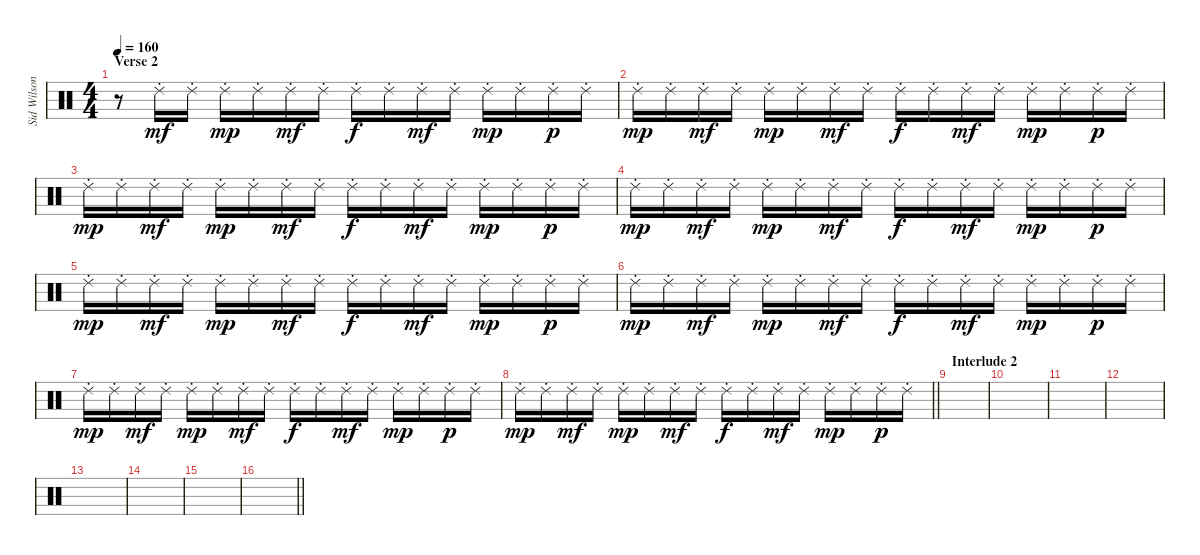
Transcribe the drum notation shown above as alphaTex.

\track ("Sid Wilson" "Sid Wilson") {instrument percussion}
\staff {score}
\articulation defaults
\ts (4 4)
\section ("" "Verse 2")
\tempo 160
\clef neutral
\ks c
r.8{dy p} "Ride (choke) 2".16{dy mf} "Ride (choke) 2".16 "Ride (choke) 2".16{dy mp} "Ride (choke) 2".16 "Ride (choke) 2".16{dy mf} "Ride (choke) 2".16 "Ride (choke) 2".16{dy f} "Ride (choke) 2".16 "Ride (choke) 2".16{dy mf} "Ride (choke) 2".16 "Ride (choke) 2".16{dy mp} "Ride (choke) 2".16 "Ride (choke) 2".16{dy p} "Ride (choke) 2".16 |
"Ride (choke) 2".16{dy mp} "Ride (choke) 2".16 "Ride (choke) 2".16{dy mf} "Ride (choke) 2".16 "Ride (choke) 2".16{dy mp} "Ride (choke) 2".16 "Ride (choke) 2".16{dy mf} "Ride (choke) 2".16 "Ride (choke) 2".16{dy f} "Ride (choke) 2".16 "Ride (choke) 2".16{dy mf} "Ride (choke) 2".16 "Ride (choke) 2".16{dy mp} "Ride (choke) 2".16 "Ride (choke) 2".16{dy p} "Ride (choke) 2".16 |
"Ride (choke) 2".16{dy mp} "Ride (choke) 2".16 "Ride (choke) 2".16{dy mf} "Ride (choke) 2".16 "Ride (choke) 2".16{dy mp} "Ride (choke) 2".16 "Ride (choke) 2".16{dy mf} "Ride (choke) 2".16 "Ride (choke) 2".16{dy f} "Ride (choke) 2".16 "Ride (choke) 2".16{dy mf} "Ride (choke) 2".16 "Ride (choke) 2".16{dy mp} "Ride (choke) 2".16 "Ride (choke) 2".16{dy p} "Ride (choke) 2".16 |
"Ride (choke) 2".16{dy mp} "Ride (choke) 2".16 "Ride (choke) 2".16{dy mf} "Ride (choke) 2".16 "Ride (choke) 2".16{dy mp} "Ride (choke) 2".16 "Ride (choke) 2".16{dy mf} "Ride (choke) 2".16 "Ride (choke) 2".16{dy f} "Ride (choke) 2".16 "Ride (choke) 2".16{dy mf} "Ride (choke) 2".16 "Ride (choke) 2".16{dy mp} "Ride (choke) 2".16 "Ride (choke) 2".16{dy p} "Ride (choke) 2".16 |
"Ride (choke) 2".16{dy mp} "Ride (choke) 2".16 "Ride (choke) 2".16{dy mf} "Ride (choke) 2".16 "Ride (choke) 2".16{dy mp} "Ride (choke) 2".16 "Ride (choke) 2".16{dy mf} "Ride (choke) 2".16 "Ride (choke) 2".16{dy f} "Ride (choke) 2".16 "Ride (choke) 2".16{dy mf} "Ride (choke) 2".16 "Ride (choke) 2".16{dy mp} "Ride (choke) 2".16 "Ride (choke) 2".16{dy p} "Ride (choke) 2".16 |
"Ride (choke) 2".16{dy mp} "Ride (choke) 2".16 "Ride (choke) 2".16{dy mf} "Ride (choke) 2".16 "Ride (choke) 2".16{dy mp} "Ride (choke) 2".16 "Ride (choke) 2".16{dy mf} "Ride (choke) 2".16 "Ride (choke) 2".16{dy f} "Ride (choke) 2".16 "Ride (choke) 2".16{dy mf} "Ride (choke) 2".16 "Ride (choke) 2".16{dy mp} "Ride (choke) 2".16 "Ride (choke) 2".16{dy p} "Ride (choke) 2".16 |
"Ride (choke) 2".16{dy mp} "Ride (choke) 2".16 "Ride (choke) 2".16{dy mf} "Ride (choke) 2".16 "Ride (choke) 2".16{dy mp} "Ride (choke) 2".16 "Ride (choke) 2".16{dy mf} "Ride (choke) 2".16 "Ride (choke) 2".16{dy f} "Ride (choke) 2".16 "Ride (choke) 2".16{dy mf} "Ride (choke) 2".16 "Ride (choke) 2".16{dy mp} "Ride (choke) 2".16 "Ride (choke) 2".16{dy p} "Ride (choke) 2".16 |
\barLineRight lightlight "Ride (choke) 2".16{dy mp} "Ride (choke) 2".16 "Ride (choke) 2".16{dy mf} "Ride (choke) 2".16 "Ride (choke) 2".16{dy mp} "Ride (choke) 2".16 "Ride (choke) 2".16{dy mf} "Ride (choke) 2".16 "Ride (choke) 2".16{dy f} "Ride (choke) 2".16 "Ride (choke) 2".16{dy mf} "Ride (choke) 2".16 "Ride (choke) 2".16{dy mp} "Ride (choke) 2".16 "Ride (choke) 2".16{dy p} "Ride (choke) 2".16
|
\section ("" "Interlude 2")
|
|
|
|
|
|
|
\barLineRight lightlight
